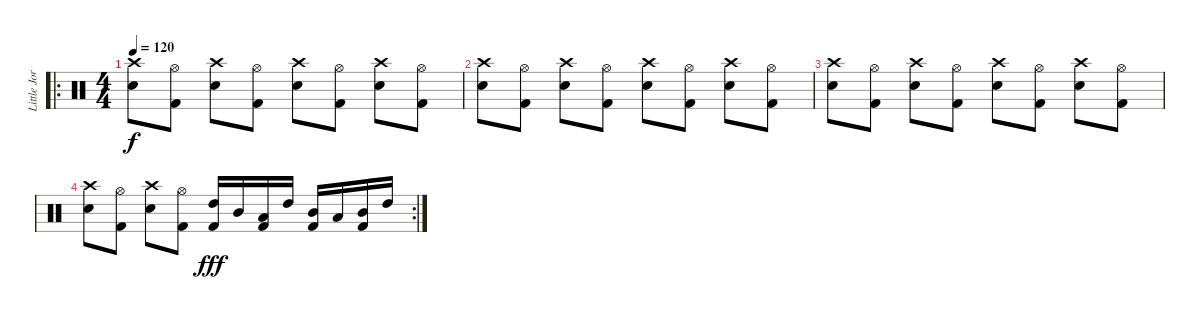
\track ("Little Jordison" "Little Jor") {instrument percussion}
\staff {score}
\articulation defaults
\ro
\ts (4 4)
\tempo 120
\clef neutral
\ks c
("Crash high (hit)" "Electric Snare (hit)").8{dy f volume 13} ("Hi-Hat (open)" "Kick (hit) 2").8 ("Crash high (hit)" "Electric Snare (hit)").8 ("Hi-Hat (open)" "Kick (hit) 2").8 ("Crash high (hit)" "Electric Snare (hit)").8 ("Hi-Hat (open)" "Kick (hit) 2").8 ("Crash high (hit)" "Electric Snare (hit)").8 ("Hi-Hat (open)" "Kick (hit) 2").8 |
("Crash high (hit)" "Electric Snare (hit)").8 ("Hi-Hat (open)" "Kick (hit) 2").8 ("Crash high (hit)" "Electric Snare (hit)").8 ("Hi-Hat (open)" "Kick (hit) 2").8 ("Crash high (hit)" "Electric Snare (hit)").8 ("Hi-Hat (open)" "Kick (hit) 2").8 ("Crash high (hit)" "Electric Snare (hit)").8 ("Hi-Hat (open)" "Kick (hit) 2").8 |
("Crash high (hit)" "Electric Snare (hit)").8 ("Hi-Hat (open)" "Kick (hit) 2").8 ("Crash high (hit)" "Electric Snare (hit)").8 ("Hi-Hat (open)" "Kick (hit) 2").8 ("Crash high (hit)" "Electric Snare (hit)").8 ("Hi-Hat (open)" "Kick (hit) 2").8 ("Crash high (hit)" "Electric Snare (hit)").8 ("Hi-Hat (open)" "Kick (hit) 2").8 |
\rc 2
("Crash high (hit)" "Electric Snare (hit)").8 ("Hi-Hat (open)" "Kick (hit) 2").8 ("Crash high (hit)" "Electric Snare (hit)").8 ("Hi-Hat (open)" "Kick (hit) 2").8 ("High Tom (hit)" "Kick (hit) 2").16{dy fff} "Mid Tom (hit)".16 ("Low Tom (hit)" "Kick (hit) 2").16 "High Tom (hit)".16 ("Mid Tom (hit)" "Kick (hit) 2").16 "Low Tom (hit)".16 ("Mid Tom (hit)" "Kick (hit) 2").16 "High Tom (hit)".16
